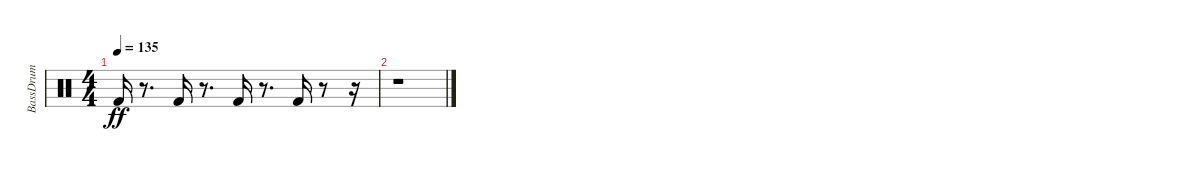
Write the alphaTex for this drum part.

\track ("BassDrum" "BassDrum") {instrument percussion}
\staff {score}
\articulation defaults
\ts (4 4)
\tempo 135
\clef neutral
\ks c "Kick (hit) 2".16{dy ff}
r.8{d} "Kick (hit) 2".16 r.8{d} "Kick (hit) 2".16 r.8{d} "Kick (hit) 2".16 r.8 r.16 |
r.1
